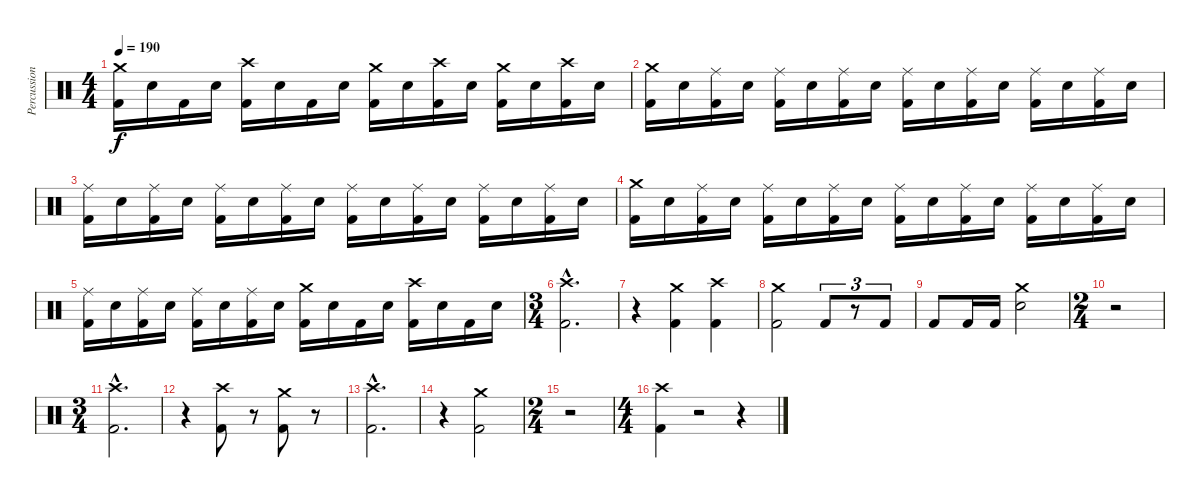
\track ("Percussion" "Percussion") {instrument percussion}
\staff {score}
\articulation defaults
\ts (4 4)
\tempo 190
\clef neutral
\ks c
("Crash medium (hit)" "Kick (hit) 2").16{dy f} "Electric Snare (hit)".16 "Kick (hit) 2".16 "Electric Snare (hit)".16 ("Crash high (hit)" "Kick (hit) 2").16 "Electric Snare (hit)".16 "Kick (hit) 2".16 "Electric Snare (hit)".16 ("Crash medium (hit)" "Kick (hit) 2").16 "Electric Snare (hit)".16 ("Crash high (hit)" "Kick (hit) 2").16 "Electric Snare (hit)".16 ("Crash medium (hit)" "Kick (hit) 2").16 "Electric Snare (hit)".16 ("Crash high (hit)" "Kick (hit) 2").16 "Electric Snare (hit)".16 |
("Crash medium (hit)" "Kick (hit) 2").16 "Electric Snare (hit)".16 ("Ride (middle)" "Kick (hit) 2").16 "Electric Snare (hit)".16 ("Ride (middle)" "Kick (hit) 2").16 "Electric Snare (hit)".16 ("Ride (middle)" "Kick (hit) 2").16 "Electric Snare (hit)".16 ("Ride (middle)" "Kick (hit) 2").16 "Electric Snare (hit)".16 ("Ride (middle)" "Kick (hit) 2").16 "Electric Snare (hit)".16 ("Ride (middle)" "Kick (hit) 2").16 "Electric Snare (hit)".16 ("Ride (middle)" "Kick (hit) 2").16 "Electric Snare (hit)".16 |
("Ride (middle)" "Kick (hit) 2").16 "Electric Snare (hit)".16 ("Ride (middle)" "Kick (hit) 2").16 "Electric Snare (hit)".16 ("Ride (middle)" "Kick (hit) 2").16 "Electric Snare (hit)".16 ("Ride (middle)" "Kick (hit) 2").16 "Electric Snare (hit)".16 ("Ride (middle)" "Kick (hit) 2").16 "Electric Snare (hit)".16 ("Ride (middle)" "Kick (hit) 2").16 "Electric Snare (hit)".16 ("Ride (middle)" "Kick (hit) 2").16 "Electric Snare (hit)".16 ("Ride (middle)" "Kick (hit) 2").16 "Electric Snare (hit)".16 |
("Crash medium (hit)" "Kick (hit) 2").16 "Electric Snare (hit)".16 ("Ride (middle)" "Kick (hit) 2").16 "Electric Snare (hit)".16 ("Ride (middle)" "Kick (hit) 2").16 "Electric Snare (hit)".16 ("Ride (middle)" "Kick (hit) 2").16 "Electric Snare (hit)".16 ("Ride (middle)" "Kick (hit) 2").16 "Electric Snare (hit)".16 ("Ride (middle)" "Kick (hit) 2").16 "Electric Snare (hit)".16 ("Ride (middle)" "Kick (hit) 2").16 "Electric Snare (hit)".16 ("Ride (middle)" "Kick (hit) 2").16 "Electric Snare (hit)".16 |
("Ride (middle)" "Kick (hit) 2").16 "Electric Snare (hit)".16 ("Ride (middle)" "Kick (hit) 2").16 "Electric Snare (hit)".16 ("Ride (middle)" "Kick (hit) 2").16 "Electric Snare (hit)".16 ("Ride (middle)" "Kick (hit) 2").16 "Electric Snare (hit)".16 ("Crash medium (hit)" "Kick (hit) 2").16 "Electric Snare (hit)".16 "Kick (hit) 2".16 "Electric Snare (hit)".16 ("Crash high (hit)" "Kick (hit) 2").16 "Electric Snare (hit)".16 "Kick (hit) 2".16 "Electric Snare (hit)".16 |
\ts (3 4)
("Crash high (hit)"{hac} "Kick (hit) 2"{hac}).2{d} |
r.4 ("Crash medium (hit)" "Kick (hit) 2").4 ("Crash high (hit)" "Kick (hit) 2").4 |
("Crash medium (hit)" "Kick (hit) 2").2 "Kick (hit) 2".8{tu (3 2)} r.8{tu (3 2)} "Kick (hit) 2".8{tu (3 2)} |
"Kick (hit) 2".8 "Kick (hit) 2".16 "Kick (hit) 2".16 ("Crash medium (hit)" "Electric Snare (hit)").2 |
\ts (2 4)
r.2 |
\ts (3 4)
("Crash high (hit)"{hac} "Kick (hit) 2"{hac}).2{d} |
r.4 ("Crash high (hit)" "Kick (hit) 2").8 r.8{volume 0} ("Crash medium (hit)" "Kick (hit) 2").8{volume 13} r.8{volume 0} |
("Crash high (hit)"{hac} "Kick (hit) 2"{hac}).2{d volume 13} |
r.4 ("Crash medium (hit)" "Kick (hit) 2").2 |
\ts (2 4)
r.2 |
\ts (4 4)
("Crash high (hit)" "Kick (hit) 2").4 r.2{volume 0} r.4
